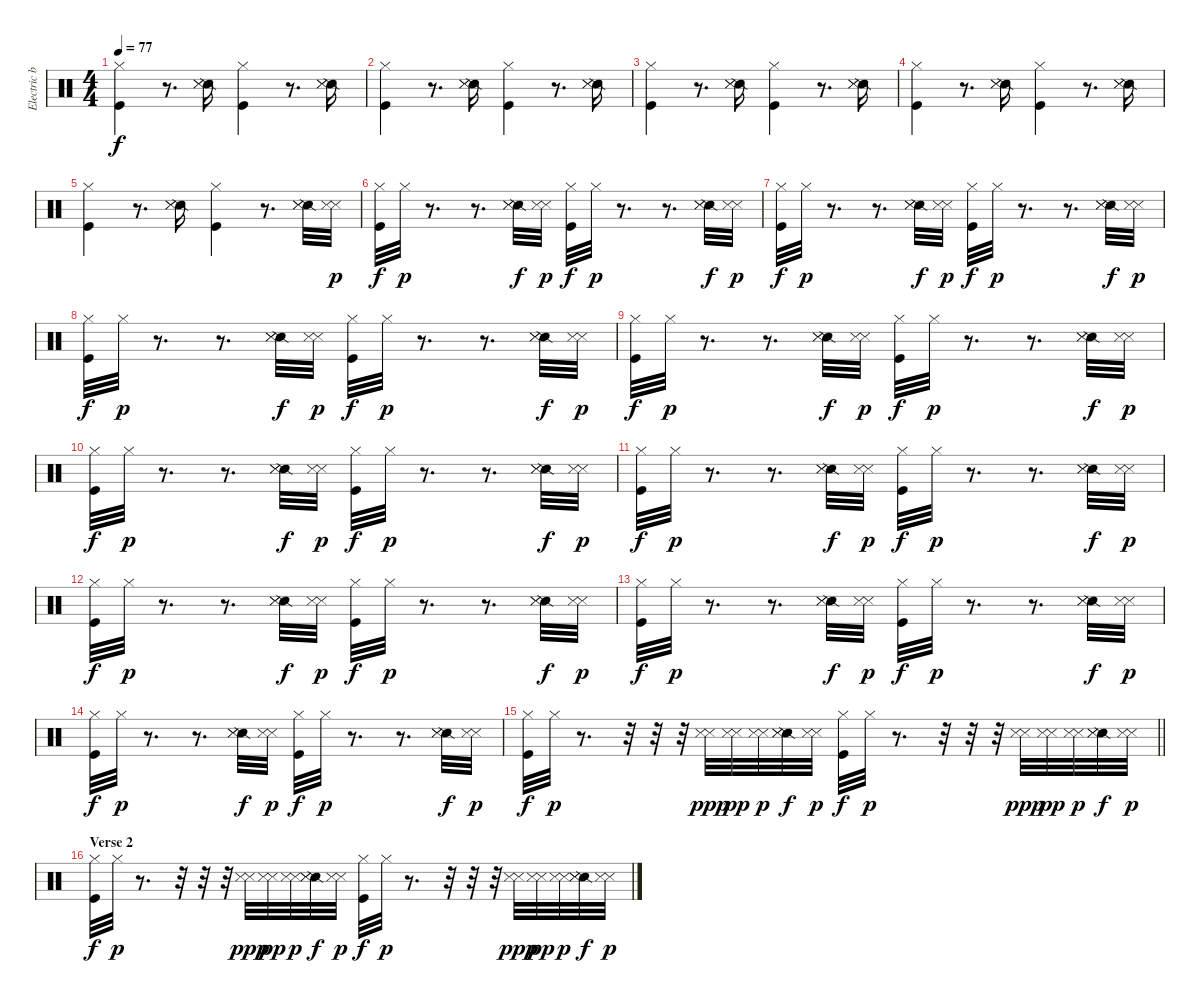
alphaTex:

\track ("Electric beat" "Electric b") {instrument percussion}
\staff {score}
\articulation defaults
\ts (4 4)
\tempo 77
\clef neutral
\ks c
("Hi-Hat (closed)" "Kick (hit)").4{dy f} r.8{d} ("Snare (side stick) 2" "Snare (side stick) 3" "Metronome (hit)").16 ("Hi-Hat (closed)" "Kick (hit)").4 r.8{d} ("Snare (side stick) 2" "Snare (side stick) 3" "Metronome (hit)").16 |
("Hi-Hat (closed)" "Kick (hit)").4 r.8{d} ("Snare (side stick) 2" "Snare (side stick) 3" "Metronome (hit)").16 ("Hi-Hat (closed)" "Kick (hit)").4 r.8{d} ("Snare (side stick) 2" "Snare (side stick) 3" "Metronome (hit)").16 |
("Hi-Hat (closed)" "Kick (hit)").4 r.8{d} ("Snare (side stick) 2" "Snare (side stick) 3" "Metronome (hit)").16 ("Hi-Hat (closed)" "Kick (hit)").4 r.8{d} ("Snare (side stick) 2" "Snare (side stick) 3" "Metronome (hit)").16 |
("Hi-Hat (closed)" "Kick (hit)").4 r.8{d} ("Snare (side stick) 2" "Snare (side stick) 3" "Metronome (hit)").16 ("Hi-Hat (closed)" "Kick (hit)").4 r.8{d} ("Snare (side stick) 2" "Snare (side stick) 3" "Metronome (hit)").16 |
("Hi-Hat (closed)" "Kick (hit)").4 r.8{d} ("Snare (side stick) 2" "Snare (side stick) 3" "Metronome (hit)").16 ("Hi-Hat (closed)" "Kick (hit)").4 r.8{d} ("Snare (side stick) 2" "Snare (side stick) 3" "Metronome (hit)").32 ("Snare (side stick) 3" "Metronome (hit)").32{dy p} |
("Hi-Hat (closed)" "Kick (hit)").32{dy f} "Hi-Hat (closed)".32{dy p} r.8{d} r.8{d} ("Snare (side stick) 2" "Snare (side stick) 3" "Metronome (hit)").32{dy f} ("Snare (side stick) 3" "Metronome (hit)").32{dy p} ("Hi-Hat (closed)" "Kick (hit)").32{dy f} "Hi-Hat (closed)".32{dy p} r.8{d} r.8{d} ("Snare (side stick) 2" "Snare (side stick) 3" "Metronome (hit)").32{dy f} ("Snare (side stick) 3" "Metronome (hit)").32{dy p} |
("Hi-Hat (closed)" "Kick (hit)").32{dy f} "Hi-Hat (closed)".32{dy p} r.8{d} r.8{d} ("Snare (side stick) 2" "Snare (side stick) 3" "Metronome (hit)").32{dy f} ("Snare (side stick) 3" "Metronome (hit)").32{dy p} ("Hi-Hat (closed)" "Kick (hit)").32{dy f} "Hi-Hat (closed)".32{dy p} r.8{d} r.8{d} ("Snare (side stick) 2" "Snare (side stick) 3" "Metronome (hit)").32{dy f} ("Snare (side stick) 3" "Metronome (hit)").32{dy p} |
("Hi-Hat (closed)" "Kick (hit)").32{dy f} "Hi-Hat (closed)".32{dy p} r.8{d} r.8{d} ("Snare (side stick) 2" "Snare (side stick) 3" "Metronome (hit)").32{dy f} ("Snare (side stick) 3" "Metronome (hit)").32{dy p} ("Hi-Hat (closed)" "Kick (hit)").32{dy f} "Hi-Hat (closed)".32{dy p} r.8{d} r.8{d} ("Snare (side stick) 2" "Snare (side stick) 3" "Metronome (hit)").32{dy f} ("Snare (side stick) 3" "Metronome (hit)").32{dy p} |
("Hi-Hat (closed)" "Kick (hit)").32{dy f} "Hi-Hat (closed)".32{dy p} r.8{d} r.8{d} ("Snare (side stick) 2" "Snare (side stick) 3" "Metronome (hit)").32{dy f} ("Snare (side stick) 3" "Metronome (hit)").32{dy p} ("Hi-Hat (closed)" "Kick (hit)").32{dy f} "Hi-Hat (closed)".32{dy p} r.8{d} r.8{d} ("Snare (side stick) 2" "Snare (side stick) 3" "Metronome (hit)").32{dy f} ("Snare (side stick) 3" "Metronome (hit)").32{dy p} |
("Hi-Hat (closed)" "Kick (hit)").32{dy f} "Hi-Hat (closed)".32{dy p} r.8{d} r.8{d} ("Snare (side stick) 2" "Snare (side stick) 3" "Metronome (hit)").32{dy f} ("Snare (side stick) 3" "Metronome (hit)").32{dy p} ("Hi-Hat (closed)" "Kick (hit)").32{dy f} "Hi-Hat (closed)".32{dy p} r.8{d} r.8{d} ("Snare (side stick) 2" "Snare (side stick) 3" "Metronome (hit)").32{dy f} ("Snare (side stick) 3" "Metronome (hit)").32{dy p} |
("Hi-Hat (closed)" "Kick (hit)").32{dy f} "Hi-Hat (closed)".32{dy p} r.8{d} r.8{d} ("Snare (side stick) 2" "Snare (side stick) 3" "Metronome (hit)").32{dy f} ("Snare (side stick) 3" "Metronome (hit)").32{dy p} ("Hi-Hat (closed)" "Kick (hit)").32{dy f} "Hi-Hat (closed)".32{dy p} r.8{d} r.8{d} ("Snare (side stick) 2" "Snare (side stick) 3" "Metronome (hit)").32{dy f} ("Snare (side stick) 3" "Metronome (hit)").32{dy p} |
("Hi-Hat (closed)" "Kick (hit)").32{dy f} "Hi-Hat (closed)".32{dy p} r.8{d} r.8{d} ("Snare (side stick) 2" "Snare (side stick) 3" "Metronome (hit)").32{dy f} ("Snare (side stick) 3" "Metronome (hit)").32{dy p} ("Hi-Hat (closed)" "Kick (hit)").32{dy f} "Hi-Hat (closed)".32{dy p} r.8{d} r.8{d} ("Snare (side stick) 2" "Snare (side stick) 3" "Metronome (hit)").32{dy f} ("Snare (side stick) 3" "Metronome (hit)").32{dy p} |
("Hi-Hat (closed)" "Kick (hit)").32{dy f} "Hi-Hat (closed)".32{dy p} r.8{d} r.8{d} ("Snare (side stick) 2" "Snare (side stick) 3" "Metronome (hit)").32{dy f} ("Snare (side stick) 3" "Metronome (hit)").32{dy p} ("Hi-Hat (closed)" "Kick (hit)").32{dy f} "Hi-Hat (closed)".32{dy p} r.8{d} r.8{d} ("Snare (side stick) 2" "Snare (side stick) 3" "Metronome (hit)").32{dy f} ("Snare (side stick) 3" "Metronome (hit)").32{dy p} |
("Hi-Hat (closed)" "Kick (hit)").32{dy f} "Hi-Hat (closed)".32{dy p} r.8{d} r.8{d} ("Snare (side stick) 2" "Snare (side stick) 3" "Metronome (hit)").32{dy f} ("Snare (side stick) 3" "Metronome (hit)").32{dy p} ("Hi-Hat (closed)" "Kick (hit)").32{dy f} "Hi-Hat (closed)".32{dy p} r.8{d} r.8{d} ("Snare (side stick) 2" "Snare (side stick) 3" "Metronome (hit)").32{dy f} ("Snare (side stick) 3" "Metronome (hit)").32{dy p} |
\barLineRight lightlight
("Hi-Hat (closed)" "Kick (hit)").32{dy f} "Hi-Hat (closed)".32{dy p} r.8{d} r.32 r.32 r.32 ("Snare (side stick) 3" "Metronome (hit)").32{dy ppp} ("Snare (side stick) 3" "Metronome (hit)").32{dy pp} ("Snare (side stick) 3" "Metronome (hit)").32{dy p} ("Snare (side stick) 2" "Snare (side stick) 3" "Metronome (hit)").32{dy f} ("Snare (side stick) 3" "Metronome (hit)").32{dy p} ("Hi-Hat (closed)" "Kick (hit)").32{dy f} "Hi-Hat (closed)".32{dy p} r.8{d} r.32 r.32 r.32 ("Snare (side stick) 3" "Metronome (hit)").32{dy ppp} ("Snare (side stick) 3" "Metronome (hit)").32{dy pp} ("Snare (side stick) 3" "Metronome (hit)").32{dy p} ("Snare (side stick) 2" "Snare (side stick) 3" "Metronome (hit)").32{dy f} ("Snare (side stick) 3" "Metronome (hit)").32{dy p} |
\section ("" "Verse 2")
("Hi-Hat (closed)" "Kick (hit)").32{dy f} "Hi-Hat (closed)".32{dy p} r.8{d} r.32 r.32 r.32 ("Snare (side stick) 3" "Metronome (hit)").32{dy ppp} ("Snare (side stick) 3" "Metronome (hit)").32{dy pp} ("Snare (side stick) 3" "Metronome (hit)").32{dy p} ("Snare (side stick) 2" "Snare (side stick) 3" "Metronome (hit)").32{dy f} ("Snare (side stick) 3" "Metronome (hit)").32{dy p} ("Hi-Hat (closed)" "Kick (hit)").32{dy f} "Hi-Hat (closed)".32{dy p} r.8{d} r.32 r.32 r.32 ("Snare (side stick) 3" "Metronome (hit)").32{dy ppp} ("Snare (side stick) 3" "Metronome (hit)").32{dy pp} ("Snare (side stick) 3" "Metronome (hit)").32{dy p} ("Snare (side stick) 2" "Snare (side stick) 3" "Metronome (hit)").32{dy f} ("Snare (side stick) 3" "Metronome (hit)").32{dy p}
